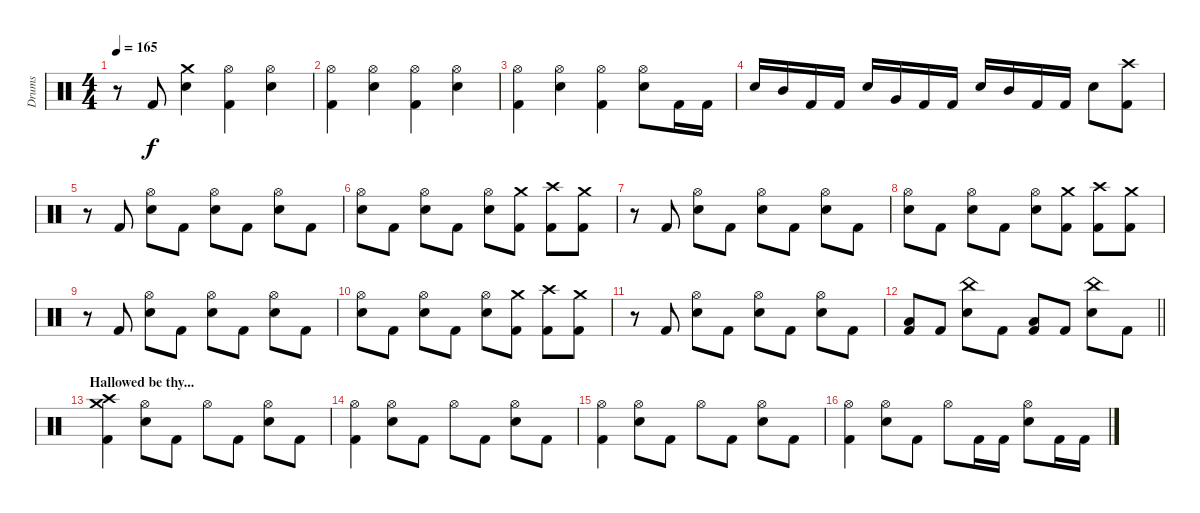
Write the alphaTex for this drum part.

\track ("Drums" "Drums") {instrument percussion}
\staff {score}
\articulation defaults
\ts (4 4)
\tempo 165
\clef neutral
\ks c
r.8{dy f} "Kick (hit) 2".8 ("Crash medium (hit)" "Electric Snare (hit)").4 ("Hi-Hat (open)" "Kick (hit) 2").4 ("Hi-Hat (open)" "Electric Snare (hit)").4 |
("Hi-Hat (open)" "Kick (hit) 2").4 ("Hi-Hat (open)" "Electric Snare (hit)").4 ("Hi-Hat (open)" "Kick (hit) 2").4 ("Hi-Hat (open)" "Electric Snare (hit)").4 |
("Hi-Hat (open)" "Kick (hit) 2").4 ("Hi-Hat (open)" "Electric Snare (hit)").4 ("Hi-Hat (open)" "Kick (hit) 2").4 ("Hi-Hat (open)" "Electric Snare (hit)").8 "Kick (hit) 2".16 "Kick (hit) 2".16 |
"Electric Snare (hit)".16 "Mid Tom (hit)".16 "Kick (hit) 2".16 "Kick (hit) 2".16 "Electric Snare (hit)".16 "Very Low Tom (hit)".16 "Kick (hit) 2".16 "Kick (hit) 2".16 "Electric Snare (hit)".16 "Mid Tom (hit)".16 "Kick (hit) 2".16 "Kick (hit) 2".16 "Electric Snare (hit)".8 ("Crash high (hit)" "Kick (hit) 2").8 |
r.8 "Kick (hit) 2".8 ("Hi-Hat (open)" "Electric Snare (hit)").8 "Kick (hit) 2".8 ("Hi-Hat (open)" "Electric Snare (hit)").8 "Kick (hit) 2".8 ("Hi-Hat (open)" "Electric Snare (hit)").8 "Kick (hit) 2".8 |
("Hi-Hat (open)" "Electric Snare (hit)").8 "Kick (hit) 2".8 ("Hi-Hat (open)" "Electric Snare (hit)").8 "Kick (hit) 2".8 ("Hi-Hat (open)" "Electric Snare (hit)").8 ("Crash medium (hit)" "Kick (hit) 2").8 ("Crash high (hit)" "Kick (hit) 2").8 ("Crash medium (hit)" "Kick (hit) 2").8 |
r.8 "Kick (hit) 2".8 ("Hi-Hat (open)" "Electric Snare (hit)").8 "Kick (hit) 2".8 ("Hi-Hat (open)" "Electric Snare (hit)").8 "Kick (hit) 2".8 ("Hi-Hat (open)" "Electric Snare (hit)").8 "Kick (hit) 2".8 |
("Hi-Hat (open)" "Electric Snare (hit)").8 "Kick (hit) 2".8 ("Hi-Hat (open)" "Electric Snare (hit)").8 "Kick (hit) 2".8 ("Hi-Hat (open)" "Electric Snare (hit)").8 ("Crash medium (hit)" "Kick (hit) 2").8 ("Crash high (hit)" "Kick (hit) 2").8 ("Crash medium (hit)" "Kick (hit) 2").8 |
r.8 "Kick (hit) 2".8 ("Hi-Hat (open)" "Electric Snare (hit)").8 "Kick (hit) 2".8 ("Hi-Hat (open)" "Electric Snare (hit)").8 "Kick (hit) 2".8 ("Hi-Hat (open)" "Electric Snare (hit)").8 "Kick (hit) 2".8 |
("Hi-Hat (open)" "Electric Snare (hit)").8 "Kick (hit) 2".8 ("Hi-Hat (open)" "Electric Snare (hit)").8 "Kick (hit) 2".8 ("Hi-Hat (open)" "Electric Snare (hit)").8 ("Crash medium (hit)" "Kick (hit) 2").8 ("Crash high (hit)" "Kick (hit) 2").8 ("Crash medium (hit)" "Kick (hit) 2").8 |
r.8 "Kick (hit) 2".8 ("Hi-Hat (open)" "Electric Snare (hit)").8 "Kick (hit) 2".8 ("Hi-Hat (open)" "Electric Snare (hit)").8 "Kick (hit) 2".8 ("Hi-Hat (open)" "Electric Snare (hit)").8 "Kick (hit) 2".8 |
\barLineRight lightlight
("Low Floor Tom (hit)" "Kick (hit) 2").8 "Kick (hit) 2".8 ("China (hit)" "Electric Snare (hit)").8 "Kick (hit) 2".8 ("Low Floor Tom (hit)" "Kick (hit) 2").8 "Kick (hit) 2".8 ("China (hit)" "Electric Snare (hit)").8 "Kick (hit) 2".8 |
\section ("" "Hallowed be thy...")
("Crash high (hit)" "Crash medium (hit)" "Kick (hit) 2").4 ("Hi-Hat (open)" "Electric Snare (hit)").8 "Kick (hit) 2".8 "Hi-Hat (open)".8 "Kick (hit) 2".8 ("Hi-Hat (open)" "Electric Snare (hit)").8 "Kick (hit) 2".8 |
("Hi-Hat (open)" "Kick (hit) 2").4 ("Hi-Hat (open)" "Electric Snare (hit)").8 "Kick (hit) 2".8 "Hi-Hat (open)".8 "Kick (hit) 2".8 ("Hi-Hat (open)" "Electric Snare (hit)").8 "Kick (hit) 2".8 |
("Hi-Hat (open)" "Kick (hit) 2").4 ("Hi-Hat (open)" "Electric Snare (hit)").8 "Kick (hit) 2".8 "Hi-Hat (open)".8 "Kick (hit) 2".8 ("Hi-Hat (open)" "Electric Snare (hit)").8 "Kick (hit) 2".8 |
("Hi-Hat (open)" "Kick (hit) 2").4 ("Hi-Hat (open)" "Electric Snare (hit)").8 "Kick (hit) 2".8 "Hi-Hat (open)".8 "Kick (hit) 2".16 "Kick (hit) 2".16 ("Hi-Hat (open)" "Electric Snare (hit)").8 "Kick (hit) 2".16 "Kick (hit) 2".16
